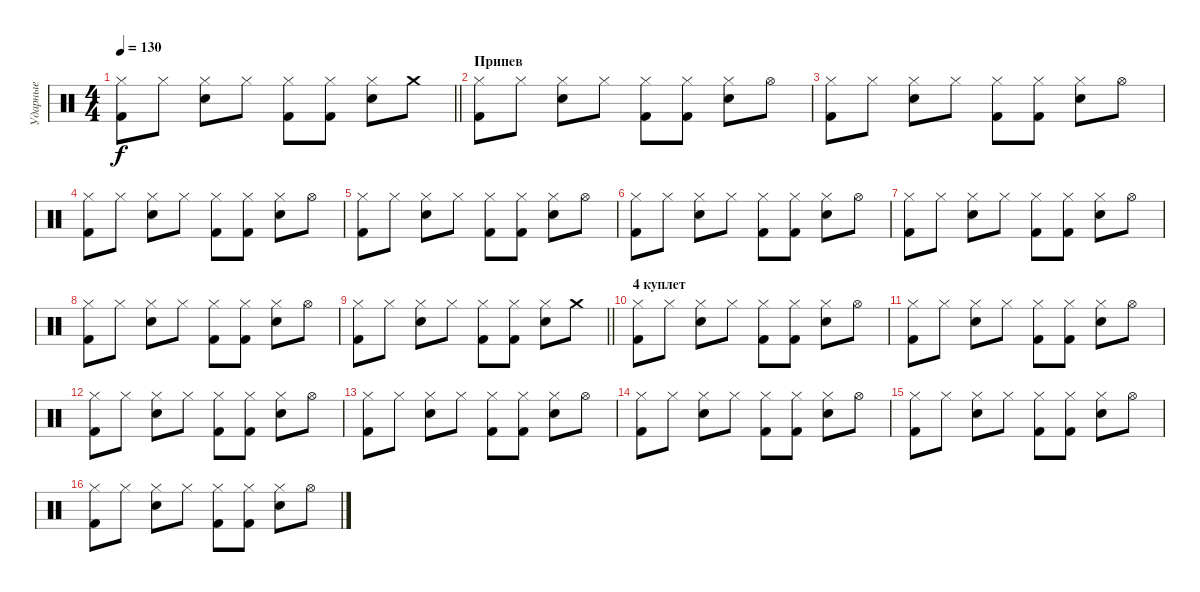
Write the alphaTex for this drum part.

\track ("Ударные" "Ударные") {instrument percussion}
\staff {score}
\articulation defaults
\ts (4 4)
\tempo 130
\clef neutral
\barLineRight lightlight
\ks c
("Hi-Hat (closed)" "Kick (hit) 2").8{dy f} "Hi-Hat (closed)".8 ("Hi-Hat (closed)" "Electric Snare (hit)").8 "Hi-Hat (closed)".8 ("Hi-Hat (closed)" "Kick (hit) 2").8 ("Hi-Hat (closed)" "Kick (hit) 2").8 ("Hi-Hat (closed)" "Electric Snare (hit)").8 "Crash medium (hit)".8 |
\section ("" "Припев")
("Hi-Hat (closed)" "Kick (hit) 2").8 "Hi-Hat (closed)".8 ("Hi-Hat (closed)" "Electric Snare (hit)").8 "Hi-Hat (closed)".8 ("Hi-Hat (closed)" "Kick (hit) 2").8 ("Hi-Hat (closed)" "Kick (hit) 2").8 ("Hi-Hat (closed)" "Electric Snare (hit)").8 "Hi-Hat (open)".8 |
("Hi-Hat (closed)" "Kick (hit) 2").8 "Hi-Hat (closed)".8 ("Hi-Hat (closed)" "Electric Snare (hit)").8 "Hi-Hat (closed)".8 ("Hi-Hat (closed)" "Kick (hit) 2").8 ("Hi-Hat (closed)" "Kick (hit) 2").8 ("Hi-Hat (closed)" "Electric Snare (hit)").8 "Hi-Hat (open)".8 |
("Hi-Hat (closed)" "Kick (hit) 2").8 "Hi-Hat (closed)".8 ("Hi-Hat (closed)" "Electric Snare (hit)").8 "Hi-Hat (closed)".8 ("Hi-Hat (closed)" "Kick (hit) 2").8 ("Hi-Hat (closed)" "Kick (hit) 2").8 ("Hi-Hat (closed)" "Electric Snare (hit)").8 "Hi-Hat (open)".8 |
("Hi-Hat (closed)" "Kick (hit) 2").8 "Hi-Hat (closed)".8 ("Hi-Hat (closed)" "Electric Snare (hit)").8 "Hi-Hat (closed)".8 ("Hi-Hat (closed)" "Kick (hit) 2").8 ("Hi-Hat (closed)" "Kick (hit) 2").8 ("Hi-Hat (closed)" "Electric Snare (hit)").8 "Hi-Hat (open)".8 |
("Hi-Hat (closed)" "Kick (hit) 2").8 "Hi-Hat (closed)".8 ("Hi-Hat (closed)" "Electric Snare (hit)").8 "Hi-Hat (closed)".8 ("Hi-Hat (closed)" "Kick (hit) 2").8 ("Hi-Hat (closed)" "Kick (hit) 2").8 ("Hi-Hat (closed)" "Electric Snare (hit)").8 "Hi-Hat (open)".8 |
("Hi-Hat (closed)" "Kick (hit) 2").8 "Hi-Hat (closed)".8 ("Hi-Hat (closed)" "Electric Snare (hit)").8 "Hi-Hat (closed)".8 ("Hi-Hat (closed)" "Kick (hit) 2").8 ("Hi-Hat (closed)" "Kick (hit) 2").8 ("Hi-Hat (closed)" "Electric Snare (hit)").8 "Hi-Hat (open)".8 |
("Hi-Hat (closed)" "Kick (hit) 2").8 "Hi-Hat (closed)".8 ("Hi-Hat (closed)" "Electric Snare (hit)").8 "Hi-Hat (closed)".8 ("Hi-Hat (closed)" "Kick (hit) 2").8 ("Hi-Hat (closed)" "Kick (hit) 2").8 ("Hi-Hat (closed)" "Electric Snare (hit)").8 "Hi-Hat (open)".8 |
\barLineRight lightlight
("Hi-Hat (closed)" "Kick (hit) 2").8 "Hi-Hat (closed)".8 ("Hi-Hat (closed)" "Electric Snare (hit)").8 "Hi-Hat (closed)".8 ("Hi-Hat (closed)" "Kick (hit) 2").8 ("Hi-Hat (closed)" "Kick (hit) 2").8 ("Hi-Hat (closed)" "Electric Snare (hit)").8 "Crash medium (hit)".8 |
\section ("" "4 куплет")
("Hi-Hat (closed)" "Kick (hit) 2").8 "Hi-Hat (closed)".8 ("Hi-Hat (closed)" "Electric Snare (hit)").8 "Hi-Hat (closed)".8 ("Hi-Hat (closed)" "Kick (hit) 2").8 ("Hi-Hat (closed)" "Kick (hit) 2").8 ("Hi-Hat (closed)" "Electric Snare (hit)").8 "Hi-Hat (open)".8 |
("Hi-Hat (closed)" "Kick (hit) 2").8 "Hi-Hat (closed)".8 ("Hi-Hat (closed)" "Electric Snare (hit)").8 "Hi-Hat (closed)".8 ("Hi-Hat (closed)" "Kick (hit) 2").8 ("Hi-Hat (closed)" "Kick (hit) 2").8 ("Hi-Hat (closed)" "Electric Snare (hit)").8 "Hi-Hat (open)".8 |
("Hi-Hat (closed)" "Kick (hit) 2").8 "Hi-Hat (closed)".8 ("Hi-Hat (closed)" "Electric Snare (hit)").8 "Hi-Hat (closed)".8 ("Hi-Hat (closed)" "Kick (hit) 2").8 ("Hi-Hat (closed)" "Kick (hit) 2").8 ("Hi-Hat (closed)" "Electric Snare (hit)").8 "Hi-Hat (open)".8 |
("Hi-Hat (closed)" "Kick (hit) 2").8 "Hi-Hat (closed)".8 ("Hi-Hat (closed)" "Electric Snare (hit)").8 "Hi-Hat (closed)".8 ("Hi-Hat (closed)" "Kick (hit) 2").8 ("Hi-Hat (closed)" "Kick (hit) 2").8 ("Hi-Hat (closed)" "Electric Snare (hit)").8 "Hi-Hat (open)".8 |
("Hi-Hat (closed)" "Kick (hit) 2").8 "Hi-Hat (closed)".8 ("Hi-Hat (closed)" "Electric Snare (hit)").8 "Hi-Hat (closed)".8 ("Hi-Hat (closed)" "Kick (hit) 2").8 ("Hi-Hat (closed)" "Kick (hit) 2").8 ("Hi-Hat (closed)" "Electric Snare (hit)").8 "Hi-Hat (open)".8 |
("Hi-Hat (closed)" "Kick (hit) 2").8 "Hi-Hat (closed)".8 ("Hi-Hat (closed)" "Electric Snare (hit)").8 "Hi-Hat (closed)".8 ("Hi-Hat (closed)" "Kick (hit) 2").8 ("Hi-Hat (closed)" "Kick (hit) 2").8 ("Hi-Hat (closed)" "Electric Snare (hit)").8 "Hi-Hat (open)".8 |
("Hi-Hat (closed)" "Kick (hit) 2").8 "Hi-Hat (closed)".8 ("Hi-Hat (closed)" "Electric Snare (hit)").8 "Hi-Hat (closed)".8 ("Hi-Hat (closed)" "Kick (hit) 2").8 ("Hi-Hat (closed)" "Kick (hit) 2").8 ("Hi-Hat (closed)" "Electric Snare (hit)").8 "Hi-Hat (open)".8
